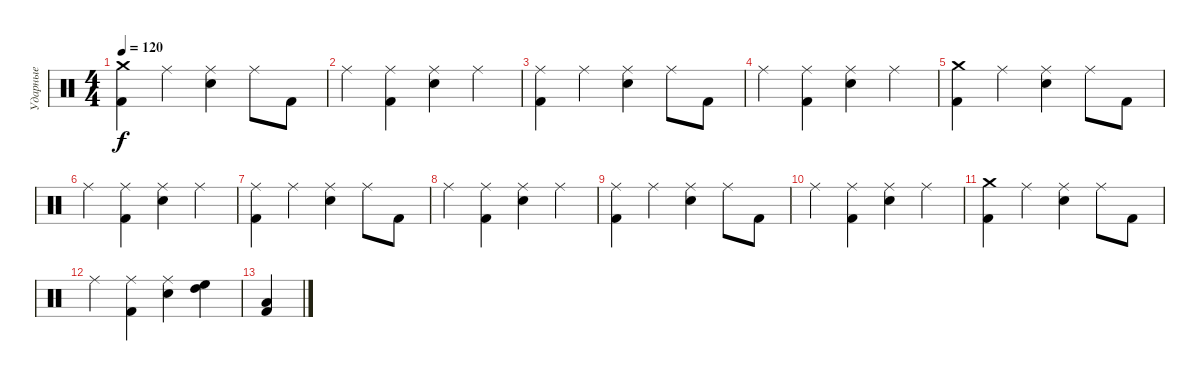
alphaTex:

\track ("Ударные" "Ударные") {instrument percussion}
\staff {score}
\articulation defaults
\ts (4 4)
\tempo 120
\clef neutral
\ks c
("Crash medium (hit)" "Kick (hit) 2").4{dy f} "Ride (middle)".4 ("Ride (middle)" "Electric Snare (hit)").4 "Ride (middle)".8 "Kick (hit) 2".8 |
"Ride (middle)".4 ("Ride (middle)" "Kick (hit) 2").4 ("Ride (middle)" "Electric Snare (hit)").4 "Ride (middle)".4 |
("Ride (middle)" "Kick (hit) 2").4 "Ride (middle)".4 ("Ride (middle)" "Electric Snare (hit)").4 "Ride (middle)".8 "Kick (hit) 2".8 |
"Ride (middle)".4 ("Ride (middle)" "Kick (hit) 2").4 ("Ride (middle)" "Electric Snare (hit)").4 "Ride (middle)".4 |
("Crash medium (hit)" "Kick (hit) 2").4 "Ride (middle)".4 ("Ride (middle)" "Electric Snare (hit)").4 "Ride (middle)".8 "Kick (hit) 2".8 |
"Ride (middle)".4 ("Ride (middle)" "Kick (hit) 2").4 ("Ride (middle)" "Electric Snare (hit)").4 "Ride (middle)".4 |
("Ride (middle)" "Kick (hit) 2").4 "Ride (middle)".4 ("Ride (middle)" "Electric Snare (hit)").4 "Ride (middle)".8 "Kick (hit) 2".8 |
"Ride (middle)".4 ("Ride (middle)" "Kick (hit) 2").4 ("Ride (middle)" "Electric Snare (hit)").4 "Ride (middle)".4 |
("Ride (middle)" "Kick (hit) 2").4 "Ride (middle)".4 ("Ride (middle)" "Electric Snare (hit)").4 "Ride (middle)".8 "Kick (hit) 2".8 |
"Ride (middle)".4 ("Ride (middle)" "Kick (hit) 2").4 ("Ride (middle)" "Electric Snare (hit)").4 "Ride (middle)".4 |
("Crash medium (hit)" "Kick (hit) 2").4 "Ride (middle)".4 ("Ride (middle)" "Electric Snare (hit)").4 "Ride (middle)".8 "Kick (hit) 2".8 |
"Ride (middle)".4 ("Ride (middle)" "Kick (hit) 2").4 ("Ride (middle)" "Electric Snare (hit)").4 ("High Floor Tom (hit)" "High Tom (hit)").4 |
("Low Tom (hit)" "Kick (hit) 2").4
